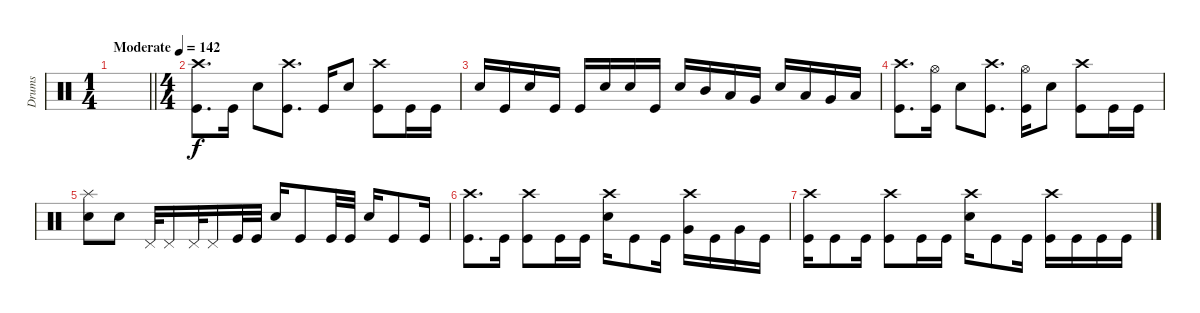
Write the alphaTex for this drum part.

\track ("Drums" "Drums") {instrument percussion}
\staff
\articulation defaults
\ts (1 4)
\tempo (142 "Moderate")
\clef neutral
\barLineRight lightlight
\ks c
|
\ts (4 4)
("Crash high (hit)" "Kick (hit)").8{d} "Kick (hit)".16 "Electric Snare (hit)".8 ("Crash high (hit)" "Kick (hit)").8{d} "Kick (hit)".16 "Electric Snare (hit)".8 ("Crash high (hit)" "Kick (hit)").8 "Kick (hit)".16 "Kick (hit)".16 |
"Electric Snare (hit)".16 "Kick (hit)".16 "Electric Snare (hit)".16 "Kick (hit)".16 "Kick (hit)".16 "Electric Snare (hit)".16 "Electric Snare (hit)".16 "Kick (hit)".16 "Electric Snare (hit)".16 "Mid Tom (hit)".16 "Low Tom (hit)".16 "Very Low Tom (hit)".16 "Electric Snare (hit)".16 "Low Tom (hit)".16 "Very Low Tom (hit)".16 "Low Floor Tom (hit)".16 |
("Crash high (hit)" "Kick (hit)").8{d} ("Hi-Hat (open)" "Kick (hit)").16 "Electric Snare (hit)".8 ("Crash high (hit)" "Kick (hit)").8{d} ("Hi-Hat (open)" "Kick (hit)").16 "Electric Snare (hit)".8 ("Crash high (hit)" "Kick (hit)").8 "Kick (hit)".16 "Kick (hit)".16 |
("Splash (hit)" "Electric Snare (hit)").8 "Electric Snare (hit)".8 "Pedal Hi-Hat (hit)".32 "Pedal Hi-Hat (hit)".16 "Pedal Hi-Hat (hit)".32 "Pedal Hi-Hat (hit)".16 "Kick (hit)".32 "Kick (hit)".32 "Electric Snare (hit)".16 "Kick (hit)".8 "Kick (hit)".32 "Kick (hit)".32 "Electric Snare (hit)".16 "Kick (hit)".8 "Kick (hit)".16 |
("Crash high (hit)" "Kick (hit)").8{d} "Kick (hit)".16 ("Crash high (hit)" "Kick (hit)").8 "Kick (hit)".16 "Kick (hit)".16 ("Crash high (hit)" "Electric Snare (hit)").16 "Kick (hit)".8 "Kick (hit)".16 ("Crash high (hit)" "Very Low Tom (hit)").16 "Kick (hit)".16 "Very Low Tom (hit)".16 "Kick (hit)".16 |
("Crash high (hit)" "Kick (hit)").16 "Kick (hit)".8 "Kick (hit)".16 ("Crash high (hit)" "Kick (hit)").8 "Kick (hit)".16 "Kick (hit)".16 ("Crash high (hit)" "Electric Snare (hit)").16 "Kick (hit)".8 "Kick (hit)".16 ("Crash high (hit)" "Kick (hit)").16 "Kick (hit)".16 "Kick (hit)".16 "Kick (hit)".16
